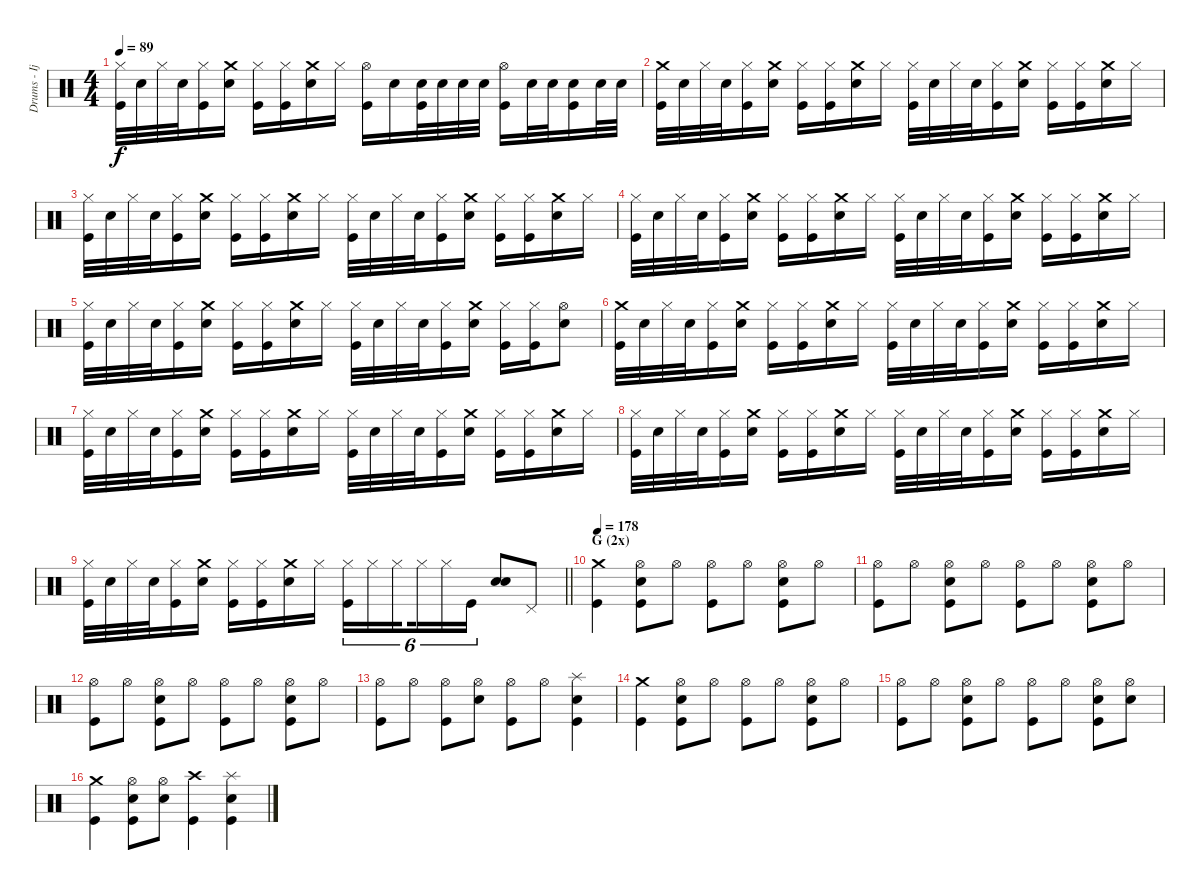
\track ("Drums - Ijichi" "Drums - Ij") {instrument percussion}
\staff {score}
\articulation defaults
\ts (4 4)
\tempo 89
\clef neutral
\ks c
("Hi-Hat (closed)" "Kick (hit)").32{dy f} "Electric Snare (hit)".32 "Hi-Hat (closed)".32 "Electric Snare (hit)".32 ("Hi-Hat (closed)" "Kick (hit)").16 ("Crash medium (hit)" "Electric Snare (hit)").16 ("Hi-Hat (closed)" "Kick (hit)").16 ("Hi-Hat (closed)" "Kick (hit)").16 ("Crash medium (hit)" "Electric Snare (hit)").16 "Hi-Hat (closed)".16 ("Hi-Hat (open)" "Kick (hit)").16 "Electric Snare (hit)".16 ("Electric Snare (hit)" "Kick (hit)").32 "Electric Snare (hit)".32 "Electric Snare (hit)".32 "Electric Snare (hit)".32 ("Hi-Hat (open)" "Kick (hit)").16 "Electric Snare (hit)".32 "Electric Snare (hit)".32 ("Electric Snare (hit)" "Kick (hit)").16 "Electric Snare (hit)".32 "Electric Snare (hit)".32 |
("Crash medium (hit)" "Kick (hit)").32 "Electric Snare (hit)".32 "Hi-Hat (closed)".32 "Electric Snare (hit)".32 ("Hi-Hat (closed)" "Kick (hit)").16 ("Crash medium (hit)" "Electric Snare (hit)").16 ("Hi-Hat (closed)" "Kick (hit)").16 ("Hi-Hat (closed)" "Kick (hit)").16 ("Crash medium (hit)" "Electric Snare (hit)").16 "Hi-Hat (closed)".16 ("Hi-Hat (closed)" "Kick (hit)").32 "Electric Snare (hit)".32 "Hi-Hat (closed)".32 "Electric Snare (hit)".32 ("Hi-Hat (closed)" "Kick (hit)").16 ("Crash medium (hit)" "Electric Snare (hit)").16 ("Hi-Hat (closed)" "Kick (hit)").16 ("Hi-Hat (closed)" "Kick (hit)").16 ("Crash medium (hit)" "Electric Snare (hit)").16 "Hi-Hat (closed)".16 |
("Hi-Hat (closed)" "Kick (hit)").32 "Electric Snare (hit)".32 "Hi-Hat (closed)".32 "Electric Snare (hit)".32 ("Hi-Hat (closed)" "Kick (hit)").16 ("Crash medium (hit)" "Electric Snare (hit)").16 ("Hi-Hat (closed)" "Kick (hit)").16 ("Hi-Hat (closed)" "Kick (hit)").16 ("Crash medium (hit)" "Electric Snare (hit)").16 "Hi-Hat (closed)".16 ("Hi-Hat (closed)" "Kick (hit)").32 "Electric Snare (hit)".32 "Hi-Hat (closed)".32 "Electric Snare (hit)".32 ("Hi-Hat (closed)" "Kick (hit)").16 ("Crash medium (hit)" "Electric Snare (hit)").16 ("Hi-Hat (closed)" "Kick (hit)").16 ("Hi-Hat (closed)" "Kick (hit)").16 ("Crash medium (hit)" "Electric Snare (hit)").16 "Hi-Hat (closed)".16 |
("Hi-Hat (closed)" "Kick (hit)").32 "Electric Snare (hit)".32 "Hi-Hat (closed)".32 "Electric Snare (hit)".32 ("Hi-Hat (closed)" "Kick (hit)").16 ("Crash medium (hit)" "Electric Snare (hit)").16 ("Hi-Hat (closed)" "Kick (hit)").16 ("Hi-Hat (closed)" "Kick (hit)").16 ("Crash medium (hit)" "Electric Snare (hit)").16 "Hi-Hat (closed)".16 ("Hi-Hat (closed)" "Kick (hit)").32 "Electric Snare (hit)".32 "Hi-Hat (closed)".32 "Electric Snare (hit)".32 ("Hi-Hat (closed)" "Kick (hit)").16 ("Crash medium (hit)" "Electric Snare (hit)").16 ("Hi-Hat (closed)" "Kick (hit)").16 ("Hi-Hat (closed)" "Kick (hit)").16 ("Crash medium (hit)" "Electric Snare (hit)").16 "Hi-Hat (closed)".16 |
("Hi-Hat (closed)" "Kick (hit)").32 "Electric Snare (hit)".32 "Hi-Hat (closed)".32 "Electric Snare (hit)".32 ("Hi-Hat (closed)" "Kick (hit)").16 ("Crash medium (hit)" "Electric Snare (hit)").16 ("Hi-Hat (closed)" "Kick (hit)").16 ("Hi-Hat (closed)" "Kick (hit)").16 ("Crash medium (hit)" "Electric Snare (hit)").16 "Hi-Hat (closed)".16 ("Hi-Hat (closed)" "Kick (hit)").32 "Electric Snare (hit)".32 "Hi-Hat (closed)".32 "Electric Snare (hit)".32 ("Hi-Hat (closed)" "Kick (hit)").16 ("Crash medium (hit)" "Electric Snare (hit)").16 ("Hi-Hat (closed)" "Kick (hit)").16 ("Hi-Hat (closed)" "Kick (hit)").16 ("Hi-Hat (open)" "Electric Snare (hit)").8 |
("Crash medium (hit)" "Kick (hit)").32 "Electric Snare (hit)".32 "Hi-Hat (closed)".32 "Electric Snare (hit)".32 ("Hi-Hat (closed)" "Kick (hit)").16 ("Crash medium (hit)" "Electric Snare (hit)").16 ("Hi-Hat (closed)" "Kick (hit)").16 ("Hi-Hat (closed)" "Kick (hit)").16 ("Crash medium (hit)" "Electric Snare (hit)").16 "Hi-Hat (closed)".16 ("Hi-Hat (closed)" "Kick (hit)").32 "Electric Snare (hit)".32 "Hi-Hat (closed)".32 "Electric Snare (hit)".32 ("Hi-Hat (closed)" "Kick (hit)").16 ("Crash medium (hit)" "Electric Snare (hit)").16 ("Hi-Hat (closed)" "Kick (hit)").16 ("Hi-Hat (closed)" "Kick (hit)").16 ("Crash medium (hit)" "Electric Snare (hit)").16 "Hi-Hat (closed)".16 |
("Hi-Hat (closed)" "Kick (hit)").32 "Electric Snare (hit)".32 "Hi-Hat (closed)".32 "Electric Snare (hit)".32 ("Hi-Hat (closed)" "Kick (hit)").16 ("Crash medium (hit)" "Electric Snare (hit)").16 ("Hi-Hat (closed)" "Kick (hit)").16 ("Hi-Hat (closed)" "Kick (hit)").16 ("Crash medium (hit)" "Electric Snare (hit)").16 "Hi-Hat (closed)".16 ("Hi-Hat (closed)" "Kick (hit)").32 "Electric Snare (hit)".32 "Hi-Hat (closed)".32 "Electric Snare (hit)".32 ("Hi-Hat (closed)" "Kick (hit)").16 ("Crash medium (hit)" "Electric Snare (hit)").16 ("Hi-Hat (closed)" "Kick (hit)").16 ("Hi-Hat (closed)" "Kick (hit)").16 ("Crash medium (hit)" "Electric Snare (hit)").16 "Hi-Hat (closed)".16 |
("Hi-Hat (closed)" "Kick (hit)").32 "Electric Snare (hit)".32 "Hi-Hat (closed)".32 "Electric Snare (hit)".32 ("Hi-Hat (closed)" "Kick (hit)").16 ("Crash medium (hit)" "Electric Snare (hit)").16 ("Hi-Hat (closed)" "Kick (hit)").16 ("Hi-Hat (closed)" "Kick (hit)").16 ("Crash medium (hit)" "Electric Snare (hit)").16 "Hi-Hat (closed)".16 ("Hi-Hat (closed)" "Kick (hit)").32 "Electric Snare (hit)".32 "Hi-Hat (closed)".32 "Electric Snare (hit)".32 ("Hi-Hat (closed)" "Kick (hit)").16 ("Crash medium (hit)" "Electric Snare (hit)").16 ("Hi-Hat (closed)" "Kick (hit)").16 ("Hi-Hat (closed)" "Kick (hit)").16 ("Crash medium (hit)" "Electric Snare (hit)").16 "Hi-Hat (closed)".16 |
\barLineRight lightlight
("Hi-Hat (closed)" "Kick (hit)").32 "Electric Snare (hit)".32 "Hi-Hat (closed)".32 "Electric Snare (hit)".32 ("Hi-Hat (closed)" "Kick (hit)").16 ("Crash medium (hit)" "Electric Snare (hit)").16 ("Hi-Hat (closed)" "Kick (hit)").16 ("Hi-Hat (closed)" "Kick (hit)").16 ("Crash medium (hit)" "Electric Snare (hit)").16 "Hi-Hat (closed)".16 ("Hi-Hat (closed)" "Kick (hit)").16{tu (6 4)} "Hi-Hat (closed)".16{tu (6 4)} "Hi-Hat (closed)".16{tu (6 4) beam splitsecondary} "Hi-Hat (closed)".16{tu (6 4)} "Hi-Hat (closed)".16{tu (6 4)} "Kick (hit)".16{tu (6 4)} ("Electric Snare (hit)" "Electric Snare (hit)").8 "Pedal Hi-Hat (hit)".8 |
\section ("" "G (2x)")
\tempo 178
("Crash medium (hit)" "Kick (hit)").4 ("Hi-Hat (open)" "Electric Snare (hit)" "Kick (hit)").8 "Hi-Hat (open)".8 ("Hi-Hat (open)" "Kick (hit)").8 "Hi-Hat (open)".8 ("Hi-Hat (open)" "Electric Snare (hit)" "Kick (hit)").8 "Hi-Hat (open)".8 |
("Hi-Hat (open)" "Kick (hit)").8 "Hi-Hat (open)".8 ("Hi-Hat (open)" "Electric Snare (hit)" "Kick (hit)").8 "Hi-Hat (open)".8 ("Hi-Hat (open)" "Kick (hit)").8 "Hi-Hat (open)".8 ("Hi-Hat (open)" "Electric Snare (hit)" "Kick (hit)").8 "Hi-Hat (open)".8 |
("Hi-Hat (open)" "Kick (hit)").8 "Hi-Hat (open)".8 ("Hi-Hat (open)" "Electric Snare (hit)" "Kick (hit)").8 "Hi-Hat (open)".8 ("Hi-Hat (open)" "Kick (hit)").8 "Hi-Hat (open)".8 ("Hi-Hat (open)" "Electric Snare (hit)" "Kick (hit)").8 "Hi-Hat (open)".8 |
("Hi-Hat (open)" "Kick (hit)").8 "Hi-Hat (open)".8 ("Hi-Hat (open)" "Kick (hit)").8 ("Hi-Hat (open)" "Electric Snare (hit)").8 ("Hi-Hat (open)" "Kick (hit)").8 "Hi-Hat (open)".8 ("Splash (hit)" "Electric Snare (hit)" "Kick (hit)").4 |
("Crash medium (hit)" "Kick (hit)").4 ("Hi-Hat (open)" "Electric Snare (hit)" "Kick (hit)").8 "Hi-Hat (open)".8 ("Hi-Hat (open)" "Kick (hit)").8 "Hi-Hat (open)".8 ("Hi-Hat (open)" "Electric Snare (hit)" "Kick (hit)").8 "Hi-Hat (open)".8 |
("Hi-Hat (open)" "Kick (hit)").8 "Hi-Hat (open)".8 ("Hi-Hat (open)" "Electric Snare (hit)" "Kick (hit)").8 "Hi-Hat (open)".8 ("Hi-Hat (open)" "Kick (hit)").8 "Hi-Hat (open)".8 ("Hi-Hat (open)" "Electric Snare (hit)" "Kick (hit)").8 ("Hi-Hat (open)" "Electric Snare (hit)").8 |
("Crash medium (hit)" "Kick (hit)").4 ("Hi-Hat (open)" "Electric Snare (hit)" "Kick (hit)").8 ("Hi-Hat (open)" "Electric Snare (hit)").8 ("Crash high (hit)" "Kick (hit)").4 ("Splash (hit)" "Electric Snare (hit)" "Kick (hit)").4
